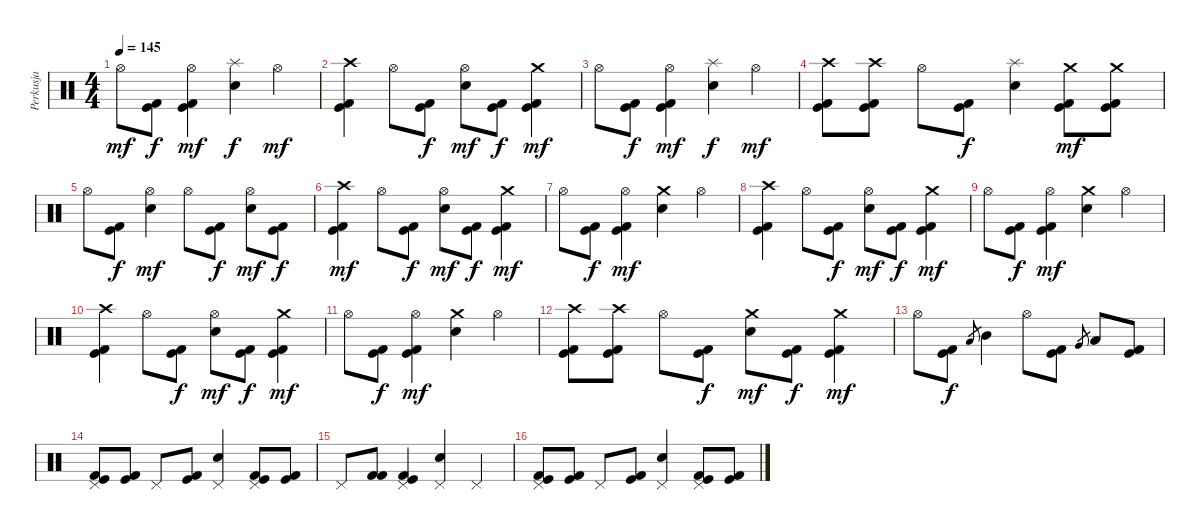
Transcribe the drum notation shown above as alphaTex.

\track ("Perkusja" "Perkusja") {instrument percussion}
\staff {score}
\articulation defaults
\ts (4 4)
\tempo 145
\clef neutral
\ks c "Hi-Hat (open)".8{dy mf}
("Kick (hit) 2" "Kick (hit)").8{dy f} ("Kick (hit) 2" "Kick (hit)" "Hi-Hat (open)").4{dy mf} ("Snare (hit) 2" "Splash (hit)").4{dy f} "Hi-Hat (open)".4{dy mf} |
("Kick (hit) 2" "Kick (hit)" "Crash high (hit)").4 "Hi-Hat (open)".8 ("Kick (hit) 2" "Kick (hit)").8{dy f} ("Snare (hit) 2" "Hi-Hat (open)").8{dy mf} ("Kick (hit) 2" "Kick (hit)").8{dy f} ("Kick (hit)" "Kick (hit) 2" "Crash medium (hit)").4{dy mf} |
"Hi-Hat (open)".8 ("Kick (hit) 2" "Kick (hit)").8{dy f} ("Kick (hit) 2" "Kick (hit)" "Hi-Hat (open)").4{dy mf} ("Snare (hit) 2" "Splash (hit)").4{dy f} "Hi-Hat (open)".4{dy mf} |
("Kick (hit) 2" "Kick (hit)" "Crash high (hit)").8 ("Kick (hit) 2" "Kick (hit)" "Crash high (hit)").8 "Hi-Hat (open)".8 ("Kick (hit) 2" "Kick (hit)").8{dy f} ("Snare (hit) 2" "Splash (hit)").4 ("Kick (hit) 2" "Kick (hit)" "Crash medium (hit)").8{dy mf} ("Kick (hit)" "Kick (hit) 2" "Crash medium (hit)").8 |
"Hi-Hat (open)".8 ("Kick (hit) 2" "Kick (hit)").8{dy f} ("Snare (hit) 2" "Hi-Hat (open)").4{dy mf} "Hi-Hat (open)".8 ("Kick (hit) 2" "Kick (hit)").8{dy f} ("Snare (hit) 2" "Hi-Hat (open)").8{dy mf} ("Kick (hit) 2" "Kick (hit)").8{dy f} |
("Kick (hit) 2" "Kick (hit)" "Crash high (hit)").4{dy mf} "Hi-Hat (open)".8 ("Kick (hit) 2" "Kick (hit)").8{dy f} ("Snare (hit) 2" "Hi-Hat (open)").8{dy mf} ("Kick (hit) 2" "Kick (hit)").8{dy f} ("Kick (hit)" "Kick (hit) 2" "Crash medium (hit)").4{dy mf} |
"Hi-Hat (open)".8 ("Kick (hit) 2" "Kick (hit)").8{dy f} ("Kick (hit) 2" "Kick (hit)" "Hi-Hat (open)").4{dy mf} ("Snare (hit) 2" "Crash medium (hit)").4 "Hi-Hat (open)".4 |
("Kick (hit) 2" "Kick (hit)" "Crash high (hit)").4 "Hi-Hat (open)".8 ("Kick (hit) 2" "Kick (hit)").8{dy f} ("Snare (hit) 2" "Hi-Hat (open)").8{dy mf} ("Kick (hit) 2" "Kick (hit)").8{dy f} ("Kick (hit)" "Kick (hit) 2" "Crash medium (hit)").4{dy mf} |
"Hi-Hat (open)".8 ("Kick (hit) 2" "Kick (hit)").8{dy f} ("Kick (hit) 2" "Kick (hit)" "Hi-Hat (open)").4{dy mf} ("Snare (hit) 2" "Crash medium (hit)").4 "Hi-Hat (open)".4 |
("Kick (hit) 2" "Kick (hit)" "Crash high (hit)").4 "Hi-Hat (open)".8 ("Kick (hit) 2" "Kick (hit)").8{dy f} ("Snare (hit) 2" "Hi-Hat (open)").8{dy mf} ("Kick (hit) 2" "Kick (hit)").8{dy f} ("Kick (hit)" "Kick (hit) 2" "Crash medium (hit)").4{dy mf} |
"Hi-Hat (open)".8 ("Kick (hit) 2" "Kick (hit)").8{dy f} ("Kick (hit) 2" "Kick (hit)" "Hi-Hat (open)").4{dy mf} ("Snare (hit) 2" "Crash medium (hit)").4 "Hi-Hat (open)".4 |
("Kick (hit) 2" "Kick (hit)" "Crash high (hit)").8 ("Kick (hit) 2" "Kick (hit)" "Crash high (hit)").8 "Hi-Hat (open)".8 ("Kick (hit) 2" "Kick (hit)").8{dy f} ("Snare (hit) 2" "Crash medium (hit)").8{dy mf} ("Kick (hit) 2" "Kick (hit)").8{dy f} ("Kick (hit)" "Kick (hit) 2" "Crash medium (hit)").4{dy mf} |
"Hi-Hat (open)".8 ("Kick (hit) 2" "Kick (hit)").8{dy f} "Low Tom (hit)".8{gr} "Mid Tom (hit)".4 "Hi-Hat (open)".8 ("Kick (hit) 2" "Kick (hit)").8 "Very Low Tom (hit)".8{gr} "Low Tom (hit)".8 ("Kick (hit) 2" "Kick (hit)").8 |
\section ("" "")
("Pedal Hi-Hat (hit)" "Kick (hit) 2" "Kick (hit)").8 ("Kick (hit) 2" "Kick (hit)").8 "Pedal Hi-Hat (hit)".8 ("Kick (hit) 2" "Kick (hit)").8 ("Pedal Hi-Hat (hit)" "Snare (hit) 2").4 ("Kick (hit) 2" "Kick (hit)" "Pedal Hi-Hat (hit)").8 ("Kick (hit) 2" "Kick (hit)").8 |
"Pedal Hi-Hat (hit)".8 ("Kick (hit) 2" "Kick (hit) 2").8 ("Pedal Hi-Hat (hit)" "Kick (hit) 2" "Kick (hit)").4 ("Pedal Hi-Hat (hit)" "Snare (hit) 2").4 "Pedal Hi-Hat (hit)".4 |
("Pedal Hi-Hat (hit)" "Kick (hit) 2" "Kick (hit)").8 ("Kick (hit) 2" "Kick (hit)").8 "Pedal Hi-Hat (hit)".8 ("Kick (hit) 2" "Kick (hit)").8 ("Pedal Hi-Hat (hit)" "Snare (hit) 2").4 ("Kick (hit) 2" "Kick (hit)" "Pedal Hi-Hat (hit)").8 ("Kick (hit) 2" "Kick (hit)").8
